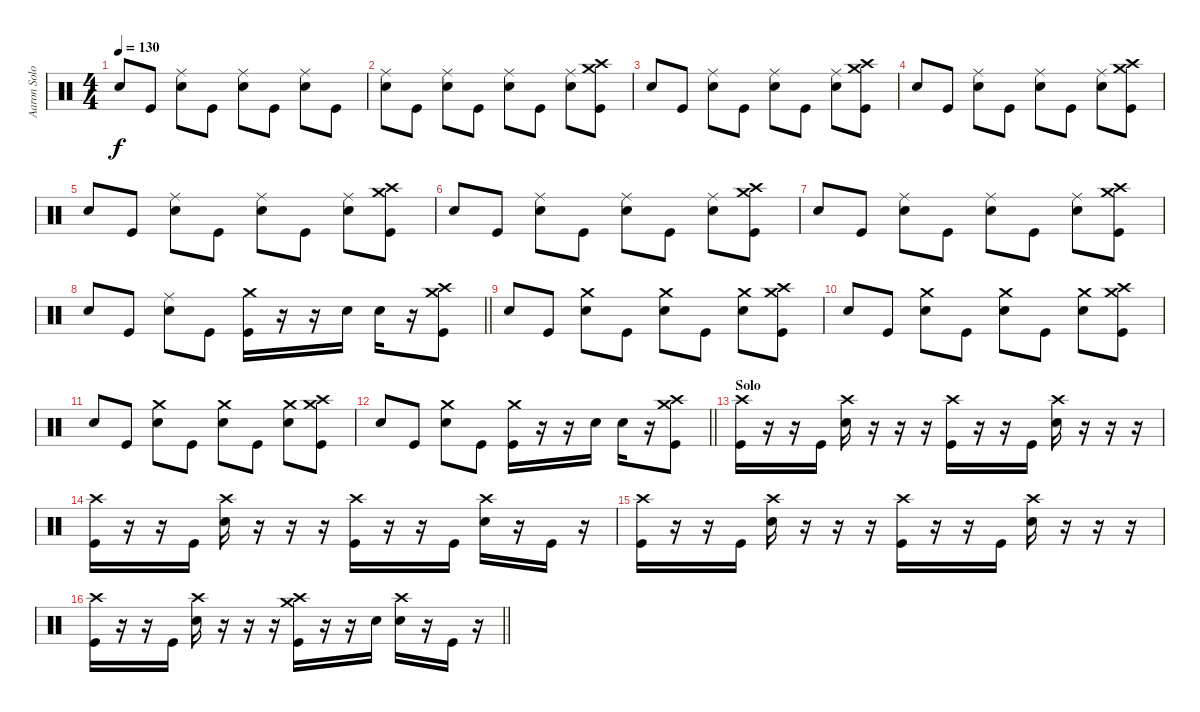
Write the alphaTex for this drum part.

\track ("Aaron Solowoniuk" "Aaron Solo") {instrument percussion}
\staff {score}
\articulation defaults
\ts (4 4)
\tempo 130
\clef neutral
\ks c "Electric Snare (hit)".8{dy f} "Kick (hit)".8
("Ride (middle)" "Electric Snare (hit)").8 "Kick (hit)".8 ("Ride (middle)" "Electric Snare (hit)").8 "Kick (hit)".8 ("Ride (middle)" "Electric Snare (hit)").8 "Kick (hit)".8 |
("Ride (middle)" "Electric Snare (hit)").8 "Kick (hit)".8 ("Ride (middle)" "Electric Snare (hit)").8 "Kick (hit)".8 ("Ride (middle)" "Electric Snare (hit)").8 "Kick (hit)".8 ("Ride (middle)" "Electric Snare (hit)").8 ("Crash medium (hit)" "Crash high (hit)" "Kick (hit)").8 |
"Electric Snare (hit)".8 "Kick (hit)".8 ("Ride (middle)" "Electric Snare (hit)").8 "Kick (hit)".8 ("Ride (middle)" "Electric Snare (hit)").8 "Kick (hit)".8 ("Ride (middle)" "Electric Snare (hit)").8 ("Crash medium (hit)" "Crash high (hit)" "Kick (hit)").8 |
"Electric Snare (hit)".8 "Kick (hit)".8 ("Ride (middle)" "Electric Snare (hit)").8 "Kick (hit)".8 ("Ride (middle)" "Electric Snare (hit)").8 "Kick (hit)".8 ("Ride (middle)" "Electric Snare (hit)").8 ("Crash medium (hit)" "Crash high (hit)" "Kick (hit)").8 |
"Electric Snare (hit)".8 "Kick (hit)".8 ("Ride (middle)" "Electric Snare (hit)").8 "Kick (hit)".8 ("Ride (middle)" "Electric Snare (hit)").8 "Kick (hit)".8 ("Ride (middle)" "Electric Snare (hit)").8 ("Crash medium (hit)" "Crash high (hit)" "Kick (hit)").8 |
"Electric Snare (hit)".8 "Kick (hit)".8 ("Ride (middle)" "Electric Snare (hit)").8 "Kick (hit)".8 ("Ride (middle)" "Electric Snare (hit)").8 "Kick (hit)".8 ("Ride (middle)" "Electric Snare (hit)").8 ("Crash medium (hit)" "Crash high (hit)" "Kick (hit)").8 |
"Electric Snare (hit)".8 "Kick (hit)".8 ("Ride (middle)" "Electric Snare (hit)").8 "Kick (hit)".8 ("Ride (middle)" "Electric Snare (hit)").8 "Kick (hit)".8 ("Ride (middle)" "Electric Snare (hit)").8 ("Crash medium (hit)" "Crash high (hit)" "Kick (hit)").8 |
\barLineRight lightlight "Electric Snare (hit)".8 "Kick (hit)".8
("Ride (middle)" "Electric Snare (hit)").8 "Kick (hit)".8 ("Crash medium (hit)" "Kick (hit)").16 r.16 r.16 "Electric Snare (hit)".16 "Electric Snare (hit)".16 r.16 ("Crash medium (hit)" "Crash high (hit)" "Kick (hit)").8 |
"Electric Snare (hit)".8 "Kick (hit)".8 ("Crash medium (hit)" "Electric Snare (hit)").8 "Kick (hit)".8 ("Crash medium (hit)" "Electric Snare (hit)").8 "Kick (hit)".8 ("Crash medium (hit)" "Electric Snare (hit)").8 ("Crash medium (hit)" "Crash high (hit)" "Kick (hit)").8 |
"Electric Snare (hit)".8 "Kick (hit)".8 ("Crash medium (hit)" "Electric Snare (hit)").8 "Kick (hit)".8 ("Crash medium (hit)" "Electric Snare (hit)").8 "Kick (hit)".8 ("Crash medium (hit)" "Electric Snare (hit)").8 ("Crash medium (hit)" "Crash high (hit)" "Kick (hit)").8 |
"Electric Snare (hit)".8 "Kick (hit)".8 ("Crash medium (hit)" "Electric Snare (hit)").8 "Kick (hit)".8 ("Crash medium (hit)" "Electric Snare (hit)").8 "Kick (hit)".8 ("Crash medium (hit)" "Electric Snare (hit)").8 ("Crash medium (hit)" "Crash high (hit)" "Kick (hit)").8 |
\barLineRight lightlight "Electric Snare (hit)".8 "Kick (hit)".8
("Crash medium (hit)" "Electric Snare (hit)").8 "Kick (hit)".8 ("Crash medium (hit)" "Kick (hit)").16 r.16 r.16 "Electric Snare (hit)".16 "Electric Snare (hit)".16 r.16 ("Crash medium (hit)" "Crash high (hit)" "Kick (hit)").8 |
\section ("" "Solo")
("Crash high (hit)" "Kick (hit)").16 r.16 r.16 "Kick (hit)".16 ("Crash high (hit)" "Electric Snare (hit)").16 r.16 r.16 r.16 ("Crash high (hit)" "Kick (hit)").16 r.16 r.16 "Kick (hit)".16 ("Crash high (hit)" "Electric Snare (hit)").16 r.16 r.16 r.16 |
("Crash high (hit)" "Kick (hit)").16 r.16 r.16 "Kick (hit)".16 ("Crash high (hit)" "Electric Snare (hit)").16 r.16 r.16 r.16 ("Crash high (hit)" "Kick (hit)").16 r.16 r.16 "Kick (hit)".16 ("Crash high (hit)" "Electric Snare (hit)").16 r.16 "Kick (hit)".16 r.16 |
("Crash high (hit)" "Kick (hit)").16 r.16 r.16 "Kick (hit)".16 ("Crash high (hit)" "Electric Snare (hit)").16 r.16 r.16 r.16 ("Crash high (hit)" "Kick (hit)").16 r.16 r.16 "Kick (hit)".16 ("Crash high (hit)" "Electric Snare (hit)").16 r.16 r.16 r.16 |
\barLineRight lightlight
("Crash high (hit)" "Kick (hit)").16 r.16 r.16 "Kick (hit)".16 ("Crash high (hit)" "Electric Snare (hit)").16 r.16 r.16 r.16 ("Crash medium (hit)" "Crash high (hit)" "Kick (hit)").16 r.16 r.16 "Electric Snare (hit)".16 ("Crash high (hit)" "Electric Snare (hit)").16 r.16 "Kick (hit)".16 r.16
